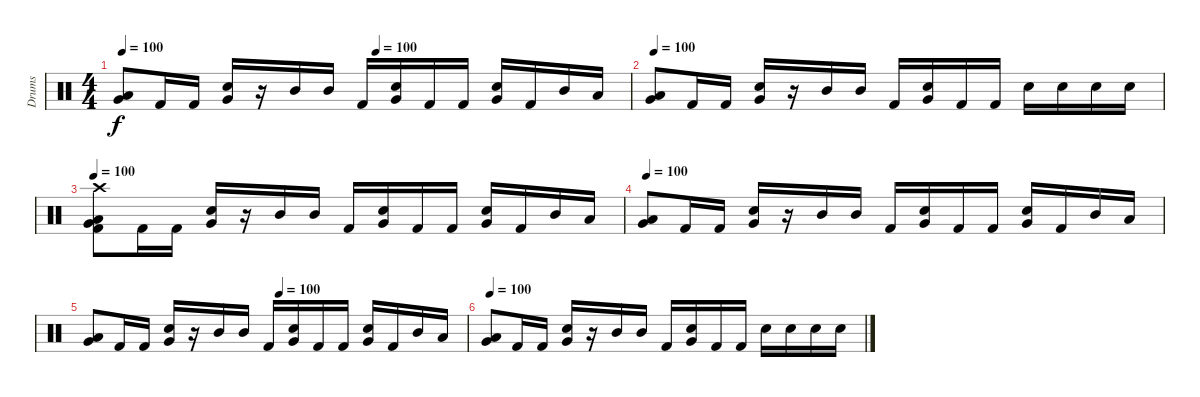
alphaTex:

\track ("Drums" "Drums") {instrument percussion}
\staff {score}
\articulation defaults
\ts (4 4)
\tempo 100
\tempo (100 0.5)
\clef neutral
\ks c
("Very Low Tom (hit)" "Low Tom (hit)").8{dy f} "Kick (hit) 2".16 "Kick (hit) 2".16 ("Very Low Tom (hit)" "Electric Snare (hit)").16 r.16 "Mid Tom (hit)".16 "Mid Tom (hit)".16 "Kick (hit) 2".16 ("Electric Snare (hit)" "Very Low Tom (hit)").16 "Kick (hit) 2".16 "Kick (hit) 2".16 ("Electric Snare (hit)" "Very Low Tom (hit)").16 "Kick (hit) 2".16 "Mid Tom (hit)".16 "Low Tom (hit)".16 |
\tempo 100
("Very Low Tom (hit)" "Low Tom (hit)").8 "Kick (hit) 2".16 "Kick (hit) 2".16 ("Very Low Tom (hit)" "Electric Snare (hit)").16 r.16 "Mid Tom (hit)".16 "Mid Tom (hit)".16 "Kick (hit) 2".16 ("Electric Snare (hit)" "Very Low Tom (hit)").16 "Kick (hit) 2".16 "Kick (hit) 2".16 "Electric Snare (hit)".16 "Electric Snare (hit)".16 "Electric Snare (hit)".16 "Electric Snare (hit)".16 |
\tempo 100
("Kick (hit) 2" "Crash high (hit)" "Very Low Tom (hit)" "Low Tom (hit)").8 "Kick (hit) 2".16 "Kick (hit) 2".16 ("Very Low Tom (hit)" "Electric Snare (hit)").16 r.16 "Mid Tom (hit)".16 "Mid Tom (hit)".16 "Kick (hit) 2".16 ("Electric Snare (hit)" "Very Low Tom (hit)").16 "Kick (hit) 2".16 "Kick (hit) 2".16 ("Electric Snare (hit)" "Very Low Tom (hit)").16 "Kick (hit) 2".16 "Mid Tom (hit)".16 "Low Tom (hit)".16 |
\tempo 100
("Very Low Tom (hit)" "Low Tom (hit)").8 "Kick (hit) 2".16 "Kick (hit) 2".16 ("Very Low Tom (hit)" "Electric Snare (hit)").16 r.16 "Mid Tom (hit)".16 "Mid Tom (hit)".16 "Kick (hit) 2".16 ("Electric Snare (hit)" "Very Low Tom (hit)").16 "Kick (hit) 2".16 "Kick (hit) 2".16 ("Electric Snare (hit)" "Very Low Tom (hit)").16 "Kick (hit) 2".16 "Mid Tom (hit)".16 "Low Tom (hit)".16 |
\tempo (100 0.5)
("Very Low Tom (hit)" "Low Tom (hit)").8 "Kick (hit) 2".16 "Kick (hit) 2".16 ("Very Low Tom (hit)" "Electric Snare (hit)").16 r.16 "Mid Tom (hit)".16 "Mid Tom (hit)".16 "Kick (hit) 2".16 ("Electric Snare (hit)" "Very Low Tom (hit)").16 "Kick (hit) 2".16 "Kick (hit) 2".16 ("Electric Snare (hit)" "Very Low Tom (hit)").16 "Kick (hit) 2".16 "Mid Tom (hit)".16 "Low Tom (hit)".16 |
\tempo 100
("Very Low Tom (hit)" "Low Tom (hit)").8 "Kick (hit) 2".16 "Kick (hit) 2".16 ("Very Low Tom (hit)" "Electric Snare (hit)").16 r.16 "Mid Tom (hit)".16 "Mid Tom (hit)".16 "Kick (hit) 2".16 ("Electric Snare (hit)" "Very Low Tom (hit)").16 "Kick (hit) 2".16 "Kick (hit) 2".16 "Electric Snare (hit)".16 "Electric Snare (hit)".16 "Electric Snare (hit)".16 "Electric Snare (hit)".16
